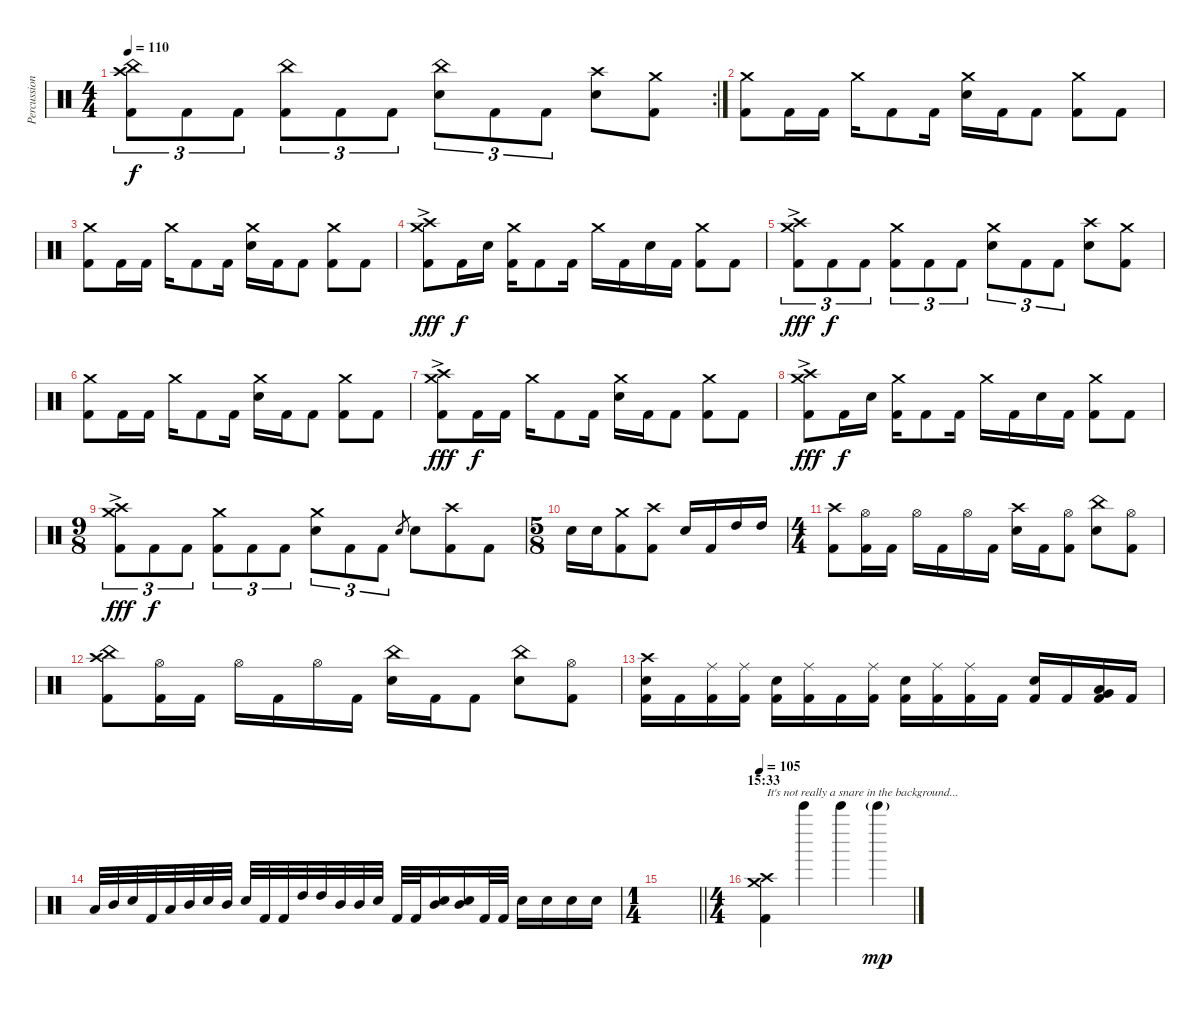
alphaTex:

\track ("Percussion" "Percussion") {instrument percussion}
\staff {score}
\articulation defaults
\rc 2
\ts (4 4)
\tempo 110
\clef neutral
\ks c
("Kick (hit) 2" "China (hit)" "Crash high (hit)").8{tu (3 2) dy f} "Kick (hit) 2".8{tu (3 2)} "Kick (hit) 2".8{tu (3 2)} ("Kick (hit) 2" "China (hit)").8{tu (3 2)} "Kick (hit) 2".8{tu (3 2)} "Kick (hit) 2".8{tu (3 2)} ("Electric Snare (hit)" "China (hit)").8{tu (3 2)} "Kick (hit) 2".8{tu (3 2)} "Kick (hit) 2".8{tu (3 2)} ("Electric Snare (hit)" "Crash high (hit)").8 ("Kick (hit) 2" "Crash medium (hit)").8 |
("Crash medium (hit)" "Kick (hit) 2").8 "Kick (hit) 2".16 "Kick (hit) 2".16 "Crash medium (hit)".16 "Kick (hit) 2".8 "Kick (hit) 2".16 ("Crash medium (hit)" "Electric Snare (hit)").16 "Kick (hit) 2".16 "Kick (hit) 2".8 ("Kick (hit) 2" "Crash medium (hit)").8 "Kick (hit) 2".8 |
("Crash medium (hit)" "Kick (hit) 2").8 "Kick (hit) 2".16 "Kick (hit) 2".16 "Crash medium (hit)".16 "Kick (hit) 2".8 "Kick (hit) 2".16 ("Crash medium (hit)" "Electric Snare (hit)").16 "Kick (hit) 2".16 "Kick (hit) 2".8 ("Kick (hit) 2" "Crash medium (hit)").8 "Kick (hit) 2".8 |
("Kick (hit) 2" "Crash high (hit)"{ac} "Crash medium (hit)").8{dy fff} "Kick (hit) 2".16{dy f} "Electric Snare (hit)".16 ("Crash medium (hit)" "Kick (hit) 2").16 "Kick (hit) 2".8 "Kick (hit) 2".16 "Crash medium (hit)".16 "Kick (hit) 2".16 "Electric Snare (hit)".16 "Kick (hit) 2".16 ("Kick (hit) 2" "Crash medium (hit)").8 "Kick (hit) 2".8 |
("Kick (hit) 2" "Crash medium (hit)"{ac} "Crash high (hit)").8{tu (3 2) dy fff} "Kick (hit) 2".8{tu (3 2) dy f} "Kick (hit) 2".8{tu (3 2)} ("Kick (hit) 2" "Crash medium (hit)").8{tu (3 2)} "Kick (hit) 2".8{tu (3 2)} "Kick (hit) 2".8{tu (3 2)} ("Crash medium (hit)" "Electric Snare (hit)").8{tu (3 2)} "Kick (hit) 2".8{tu (3 2)} "Kick (hit) 2".8{tu (3 2)} ("Crash high (hit)" "Electric Snare (hit)").8 ("Crash medium (hit)" "Kick (hit) 2").8 |
("Crash medium (hit)" "Kick (hit) 2").8 "Kick (hit) 2".16 "Kick (hit) 2".16 "Crash medium (hit)".16 "Kick (hit) 2".8 "Kick (hit) 2".16 ("Crash medium (hit)" "Electric Snare (hit)").16 "Kick (hit) 2".16 "Kick (hit) 2".8 ("Kick (hit) 2" "Crash medium (hit)").8 "Kick (hit) 2".8 |
("Crash medium (hit)"{ac} "Kick (hit) 2" "Crash high (hit)").8{dy fff} "Kick (hit) 2".16{dy f} "Kick (hit) 2".16 "Crash medium (hit)".16 "Kick (hit) 2".8 "Kick (hit) 2".16 ("Crash medium (hit)" "Electric Snare (hit)").16 "Kick (hit) 2".16 "Kick (hit) 2".8 ("Kick (hit) 2" "Crash medium (hit)").8 "Kick (hit) 2".8 |
("Kick (hit) 2" "Crash high (hit)"{ac} "Crash medium (hit)").8{dy fff} "Kick (hit) 2".16{dy f} "Electric Snare (hit)".16 ("Crash medium (hit)" "Kick (hit) 2").16 "Kick (hit) 2".8 "Kick (hit) 2".16 "Crash medium (hit)".16 "Kick (hit) 2".16 "Electric Snare (hit)".16 "Kick (hit) 2".16 ("Kick (hit) 2" "Crash medium (hit)").8 "Kick (hit) 2".8 |
\ts (9 8)
("Kick (hit) 2" "Crash medium (hit)"{ac} "Crash high (hit)").8{tu (3 2) dy fff} "Kick (hit) 2".8{tu (3 2) dy f} "Kick (hit) 2".8{tu (3 2)} ("Kick (hit) 2" "Crash medium (hit)").8{tu (3 2)} "Kick (hit) 2".8{tu (3 2)} "Kick (hit) 2".8{tu (3 2)} ("Crash medium (hit)" "Electric Snare (hit)").8{tu (3 2)} "Kick (hit) 2".8{tu (3 2)} "Kick (hit) 2".8{tu (3 2)} "Electric Snare (hit)".8{gr} "Electric Snare (hit)".8 ("Crash high (hit)" "Kick (hit) 2").8 "Kick (hit) 2".8 |
\ts (5 8)
"Electric Snare (hit)".16 "Electric Snare (hit)".16 ("Crash medium (hit)" "Kick (hit) 2").8 ("Kick (hit) 2" "Crash high (hit)").8 "Electric Snare (hit)".16 "Kick (hit) 2".16 "High Tom (hit)".16 "High Tom (hit)".16 |
\ts (4 4)
("Crash high (hit)" "Kick (hit) 2").8 ("Kick (hit) 2" "Hi-Hat (open)").16 "Kick (hit) 2".16 "Hi-Hat (open)".16 "Kick (hit) 2".16 "Hi-Hat (open)".16 "Kick (hit) 2".16 ("Crash high (hit)" "Electric Snare (hit)").16 "Kick (hit) 2".16 ("Hi-Hat (open)" "Kick (hit) 2").8 ("China (hit)" "Electric Snare (hit)").8 ("Hi-Hat (open)" "Kick (hit) 2").8 |
("China (hit)" "Kick (hit) 2" "Crash high (hit)").8 ("Kick (hit) 2" "Hi-Hat (open)").16 "Kick (hit) 2".16 "Hi-Hat (open)".16 "Kick (hit) 2".16 "Hi-Hat (open)".16 "Kick (hit) 2".16 ("China (hit)" "Electric Snare (hit)").16 "Kick (hit) 2".16 "Kick (hit) 2".8 ("Electric Snare (hit)" "China (hit)").8 ("Hi-Hat (open)" "Kick (hit) 2").8 |
("Kick (hit) 2" "Crash high (hit)" "Electric Snare (hit)").16 "Kick (hit) 2".16 ("Kick (hit) 2" "Ride (middle)").16 ("Kick (hit) 2" "Ride (middle)").16 ("Kick (hit) 2" "Electric Snare (hit)").16 ("Kick (hit) 2" "Ride (middle)").16 "Kick (hit) 2".16 ("Kick (hit) 2" "Ride (middle)").16 ("Electric Snare (hit)" "Kick (hit) 2").16 ("Kick (hit) 2" "Ride (middle)").16 ("Ride (middle)" "Kick (hit) 2").16 "Kick (hit) 2".16 ("Kick (hit) 2" "Electric Snare (hit)").16 "Kick (hit) 2".16 ("Kick (hit) 2" "Very Low Tom (hit)" "Low Tom (hit)").16 "Kick (hit) 2".16 |
"Low Tom (hit)".32 "Mid Tom (hit)".32 "Electric Snare (hit)".32 "Kick (hit) 2".32 "Low Tom (hit)".32 "Mid Tom (hit)".32 "Electric Snare (hit)".32 "Mid Tom (hit)".32 "Electric Snare (hit)".32 "Kick (hit) 2".32 "Kick (hit) 2".32 "High Tom (hit)".32 "High Tom (hit)".32 "Mid Tom (hit)".32 "Mid Tom (hit)".32 "Electric Snare (hit)".32 "Kick (hit) 2".32 "Kick (hit) 2".32 ("Electric Snare (hit)" "Mid Tom (hit)").16 ("Electric Snare (hit)" "Mid Tom (hit)").16 "Kick (hit) 2".32 "Kick (hit) 2".32 "Electric Snare (hit)".16 "Electric Snare (hit)".16 "Electric Snare (hit)".16 "Electric Snare (hit)".16 |
\ts (1 4)
\barLineRight lightlight
|
\ts (4 4)
\section ("" "15:33")
\tempo 105
("Crash high (hit)" "Crash medium (hit)" "Kick (hit) 2").4{txt "It's not really a snare in the background..." volume 10 balance 8} "Bell Tree (hit)".4 "Bell Tree (hit)".4 "Bell Tree (hit)"{g}.4{dy mp}
